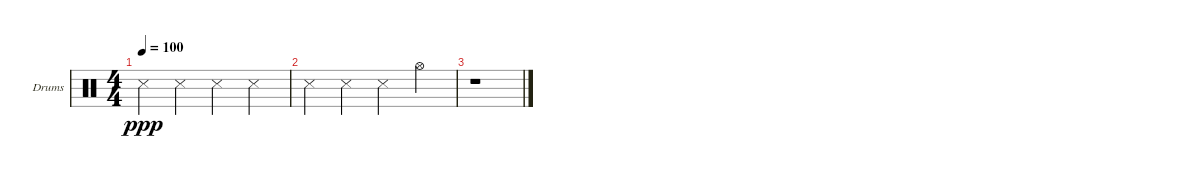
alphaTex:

\bracketExtendMode groupsimilarinstruments
\firstSystemTrackNameOrientation horizontal
\otherSystemsTrackNameOrientation horizontal
\track ("Drumkit" "Drums") {instrument percussion}
\staff {score}
\articulation defaults
\ts (4 4)
\tempo 100
\clef neutral
\ks c "Snare (side stick) 3".4{dy ppp} "Snare (side stick) 3".4 "Snare (side stick) 3".4 "Snare (side stick) 3".4
|
"Snare (side stick) 3".4 "Snare (side stick) 3".4 "Snare (side stick) 3".4 "Hi-Hat (open)".4 |
r.1
